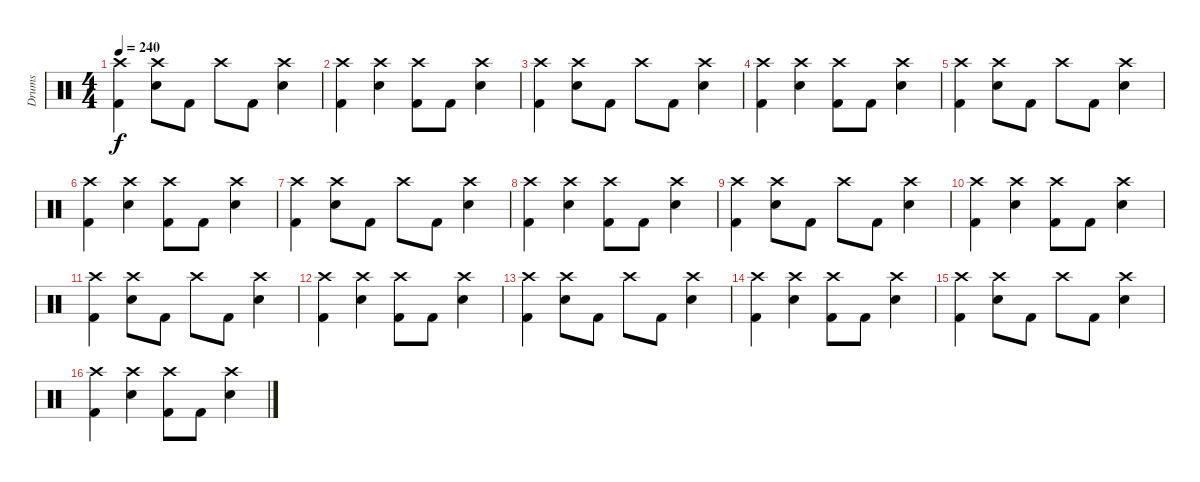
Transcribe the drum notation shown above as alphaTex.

\track ("Drums" "Drums") {instrument percussion}
\staff {score}
\articulation defaults
\ts (4 4)
\tempo 240
\clef neutral
\ks c
("Crash high (hit)" "Kick (hit) 2").4{dy f} ("Crash high (hit)" "Snare (hit) 2").8 "Kick (hit) 2".8 "Crash high (hit)".8 "Kick (hit) 2".8 ("Crash high (hit)" "Snare (hit) 2").4 |
("Crash high (hit)" "Kick (hit) 2").4 ("Crash high (hit)" "Snare (hit) 2").4 ("Crash high (hit)" "Kick (hit) 2").8 "Kick (hit) 2".8 ("Crash high (hit)" "Snare (hit) 2").4 |
("Crash high (hit)" "Kick (hit) 2").4 ("Crash high (hit)" "Snare (hit) 2").8 "Kick (hit) 2".8 "Crash high (hit)".8 "Kick (hit) 2".8 ("Crash high (hit)" "Snare (hit) 2").4 |
("Crash high (hit)" "Kick (hit) 2").4 ("Crash high (hit)" "Snare (hit) 2").4 ("Crash high (hit)" "Kick (hit) 2").8 "Kick (hit) 2".8 ("Crash high (hit)" "Snare (hit) 2").4 |
("Crash high (hit)" "Kick (hit) 2").4 ("Crash high (hit)" "Snare (hit) 2").8 "Kick (hit) 2".8 "Crash high (hit)".8 "Kick (hit) 2".8 ("Crash high (hit)" "Snare (hit) 2").4 |
("Crash high (hit)" "Kick (hit) 2").4 ("Crash high (hit)" "Snare (hit) 2").4 ("Crash high (hit)" "Kick (hit) 2").8 "Kick (hit) 2".8 ("Crash high (hit)" "Snare (hit) 2").4 |
("Crash high (hit)" "Kick (hit) 2").4 ("Crash high (hit)" "Snare (hit) 2").8 "Kick (hit) 2".8 "Crash high (hit)".8 "Kick (hit) 2".8 ("Crash high (hit)" "Snare (hit) 2").4 |
("Crash high (hit)" "Kick (hit) 2").4 ("Crash high (hit)" "Snare (hit) 2").4 ("Crash high (hit)" "Kick (hit) 2").8 "Kick (hit) 2".8 ("Crash high (hit)" "Snare (hit) 2").4 |
("Crash high (hit)" "Kick (hit) 2").4 ("Crash high (hit)" "Snare (hit) 2").8 "Kick (hit) 2".8 "Crash high (hit)".8 "Kick (hit) 2".8 ("Crash high (hit)" "Snare (hit) 2").4 |
("Crash high (hit)" "Kick (hit) 2").4 ("Crash high (hit)" "Snare (hit) 2").4 ("Crash high (hit)" "Kick (hit) 2").8 "Kick (hit) 2".8 ("Crash high (hit)" "Snare (hit) 2").4 |
("Crash high (hit)" "Kick (hit) 2").4 ("Crash high (hit)" "Snare (hit) 2").8 "Kick (hit) 2".8 "Crash high (hit)".8 "Kick (hit) 2".8 ("Crash high (hit)" "Snare (hit) 2").4 |
("Crash high (hit)" "Kick (hit) 2").4 ("Crash high (hit)" "Snare (hit) 2").4 ("Crash high (hit)" "Kick (hit) 2").8 "Kick (hit) 2".8 ("Crash high (hit)" "Snare (hit) 2").4 |
("Crash high (hit)" "Kick (hit) 2").4 ("Crash high (hit)" "Snare (hit) 2").8 "Kick (hit) 2".8 "Crash high (hit)".8 "Kick (hit) 2".8 ("Crash high (hit)" "Snare (hit) 2").4 |
("Crash high (hit)" "Kick (hit) 2").4 ("Crash high (hit)" "Snare (hit) 2").4 ("Crash high (hit)" "Kick (hit) 2").8 "Kick (hit) 2".8 ("Crash high (hit)" "Snare (hit) 2").4 |
("Crash high (hit)" "Kick (hit) 2").4 ("Crash high (hit)" "Snare (hit) 2").8 "Kick (hit) 2".8 "Crash high (hit)".8 "Kick (hit) 2".8 ("Crash high (hit)" "Snare (hit) 2").4 |
("Crash high (hit)" "Kick (hit) 2").4 ("Crash high (hit)" "Snare (hit) 2").4 ("Crash high (hit)" "Kick (hit) 2").8 "Kick (hit) 2".8 ("Crash high (hit)" "Snare (hit) 2").4
